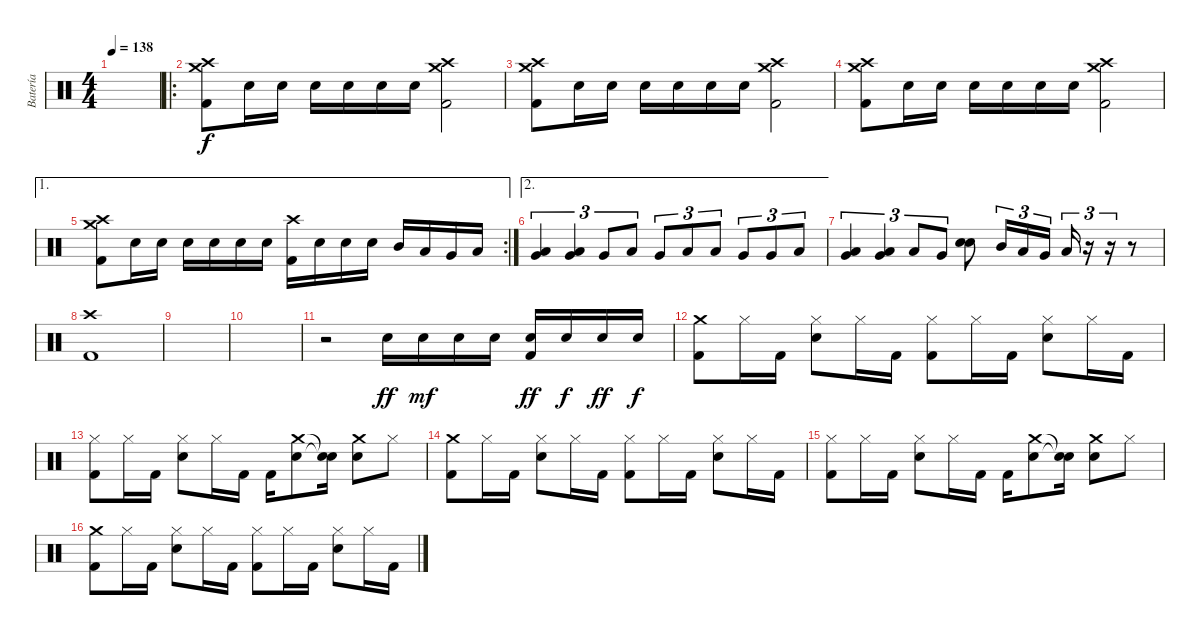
\track ("Batería" "Batería") {instrument percussion}
\staff {score}
\articulation defaults
\ts (4 4)
\tempo 138
\clef neutral
\ks c
|
\ro
("Crash high (hit)" "Crash medium (hit)" "Kick (hit) 2").8 "Snare (hit) 2".16 "Snare (hit) 2".16 "Snare (hit) 2".16 "Snare (hit) 2".16 "Snare (hit) 2".16 "Snare (hit) 2".16 ("Crash high (hit)" "Crash medium (hit)" "Kick (hit) 2").2 |
("Crash high (hit)" "Crash medium (hit)" "Kick (hit) 2").8 "Snare (hit) 2".16 "Snare (hit) 2".16 "Snare (hit) 2".16 "Snare (hit) 2".16 "Snare (hit) 2".16 "Snare (hit) 2".16 ("Crash high (hit)" "Crash medium (hit)" "Kick (hit) 2").2 |
("Crash high (hit)" "Crash medium (hit)" "Kick (hit) 2").8 "Snare (hit) 2".16 "Snare (hit) 2".16 "Snare (hit) 2".16 "Snare (hit) 2".16 "Snare (hit) 2".16 "Snare (hit) 2".16 ("Crash high (hit)" "Crash medium (hit)" "Kick (hit) 2").2 |
\ae 1
\rc 2
("Crash high (hit)" "Crash medium (hit)" "Kick (hit) 2").8 "Snare (hit) 2".16 "Snare (hit) 2".16 "Snare (hit) 2".16 "Snare (hit) 2".16 "Snare (hit) 2".16 "Snare (hit) 2".16 ("Crash high (hit)" "Kick (hit) 2").16 "Snare (hit) 2".16 "Snare (hit) 2".16 "Snare (hit) 2".16 "Mid Tom (hit)".16 "Low Tom (hit)".16 "Very Low Tom (hit)".16 "Low Floor Tom (hit)".16 |
\ae 2
("Low Tom (hit)" "Very Low Tom (hit)").4{tu (3 2)} ("Low Tom (hit)" "Very Low Tom (hit)").4{tu (3 2)} "Very Low Tom (hit)".8{tu (3 2)} "Low Tom (hit)".8{tu (3 2)} "Very Low Tom (hit)".8{tu (3 2)} "Low Tom (hit)".8{tu (3 2)} "Low Tom (hit)".8{tu (3 2)} "Very Low Tom (hit)".8{tu (3 2)} "Very Low Tom (hit)".8{tu (3 2)} "Low Floor Tom (hit)".8{tu (3 2)} |
("Very Low Tom (hit)" "Low Floor Tom (hit)").4{tu (3 2)} ("Very Low Tom (hit)" "Low Floor Tom (hit)").4{tu (3 2)} "Low Floor Tom (hit)".8{tu (3 2)} "Very Low Tom (hit)".8{tu (3 2)} ("Snare (hit) 2" "Snare (hit) 2").8 "Mid Tom (hit)".16{tu (3 2)} "Low Tom (hit)".16{tu (3 2)} "Very Low Tom (hit)".16{tu (3 2)} "Low Floor Tom (hit)".16{tu (3 2)} r.16{tu (3 2)} r.16{tu (3 2)} r.8 |
("Crash high (hit)" "Kick (hit) 2").1 |
|
|
r.2 "Snare (hit) 2".16{dy ff} "Snare (hit) 2".16{dy mf} "Snare (hit) 2".16 "Snare (hit) 2".16 ("Snare (hit) 2" "Kick (hit) 2").16{dy ff} "Snare (hit) 2".16{dy f} "Snare (hit) 2".16{dy ff} "Snare (hit) 2".16{dy f} |
("Crash medium (hit)" "Kick (hit) 2").8 "Hi-Hat (closed)".16 "Kick (hit) 2".16 ("Hi-Hat (closed)" "Snare (hit) 2").8 "Hi-Hat (closed)".16 "Kick (hit) 2".16 ("Hi-Hat (closed)" "Kick (hit) 2").8 "Hi-Hat (closed)".16 "Kick (hit) 2".16 ("Hi-Hat (closed)" "Snare (hit) 2").8 "Hi-Hat (closed)".16 "Kick (hit) 2".16 |
("Hi-Hat (closed)" "Kick (hit) 2").8 "Hi-Hat (closed)".16 "Kick (hit) 2".16 ("Hi-Hat (closed)" "Snare (hit) 2").8 "Hi-Hat (closed)".16 "Kick (hit) 2".16 "Kick (hit) 2".16 ("Crash medium (hit)" "Snare (hit) 2").8 ("Snare (hit)"{t} "Snare (hit)"{t}).16 ("Crash medium (hit)" "Snare (hit) 2").8 "Hi-Hat (closed)".8 |
("Crash medium (hit)" "Kick (hit) 2").8 "Hi-Hat (closed)".16 "Kick (hit) 2".16 ("Hi-Hat (closed)" "Snare (hit) 2").8 "Hi-Hat (closed)".16 "Kick (hit) 2".16 ("Hi-Hat (closed)" "Kick (hit) 2").8 "Hi-Hat (closed)".16 "Kick (hit) 2".16 ("Hi-Hat (closed)" "Snare (hit) 2").8 "Hi-Hat (closed)".16 "Kick (hit) 2".16 |
("Hi-Hat (closed)" "Kick (hit) 2").8 "Hi-Hat (closed)".16 "Kick (hit) 2".16 ("Hi-Hat (closed)" "Snare (hit) 2").8 "Hi-Hat (closed)".16 "Kick (hit) 2".16 "Kick (hit) 2".16 ("Crash medium (hit)" "Snare (hit) 2").8 ("Snare (hit)"{t} "Snare (hit)"{t}).16 ("Crash medium (hit)" "Snare (hit) 2").8 "Hi-Hat (closed)".8 |
("Crash medium (hit)" "Kick (hit) 2").8 "Hi-Hat (closed)".16 "Kick (hit) 2".16 ("Hi-Hat (closed)" "Snare (hit) 2").8 "Hi-Hat (closed)".16 "Kick (hit) 2".16 ("Hi-Hat (closed)" "Kick (hit) 2").8 "Hi-Hat (closed)".16 "Kick (hit) 2".16 ("Hi-Hat (closed)" "Snare (hit) 2").8 "Hi-Hat (closed)".16 "Kick (hit) 2".16
